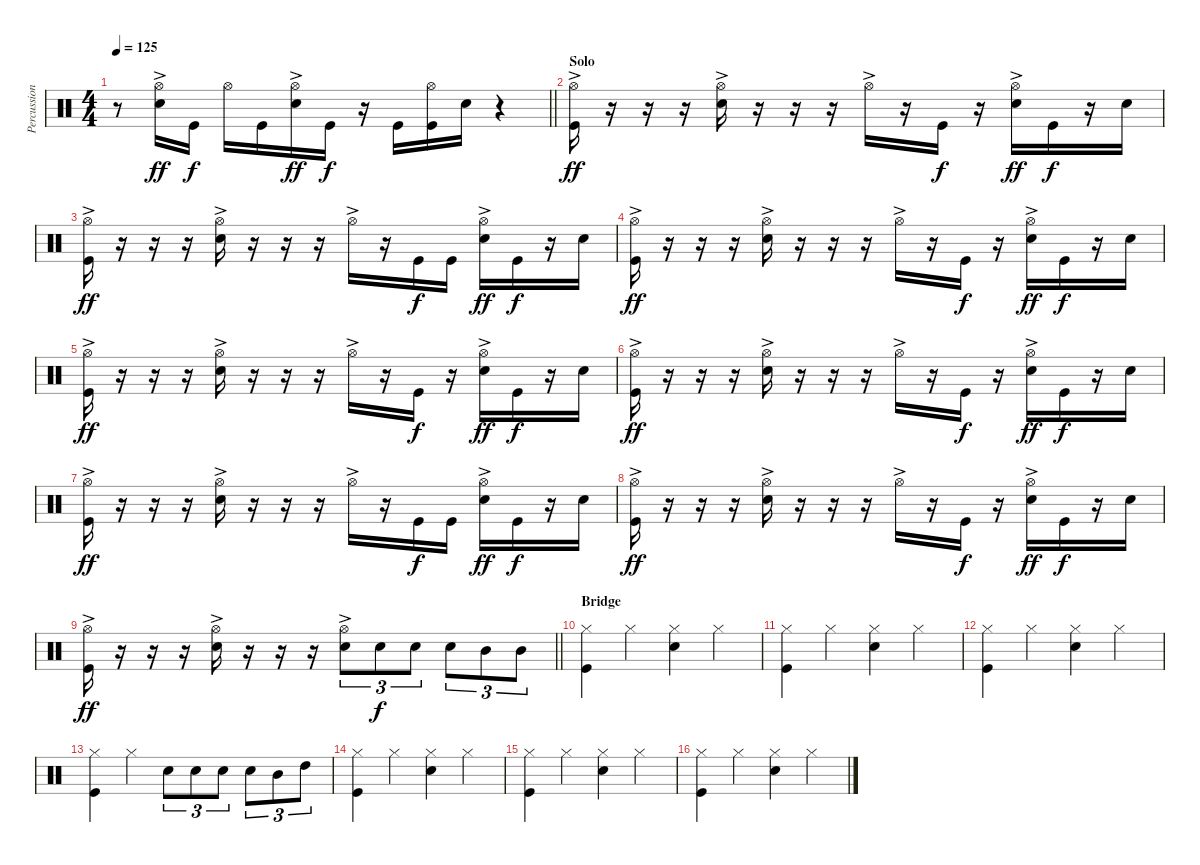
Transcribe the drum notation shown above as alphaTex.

\track ("Percussion" "Percussion") {instrument percussion}
\staff {score}
\articulation defaults
\ts (4 4)
\tempo 125
\clef neutral
\barLineRight lightlight
\ks c
r.8{dy f} ("Hi-Hat (open)"{ac} "Snare (hit) 2").16{dy ff} "Kick (hit)".16{dy f} "Hi-Hat (open)".16 "Kick (hit)".16 ("Hi-Hat (open)"{ac} "Snare (hit) 2").16{dy ff} "Kick (hit)".16{dy f} r.16 "Kick (hit)".16 ("Hi-Hat (open)" "Kick (hit)").16 "Snare (hit) 2".16 r.4 |
\section ("" "Solo")
("Hi-Hat (open)"{ac} "Kick (hit)").16{dy ff} r.16 r.16 r.16 ("Hi-Hat (open)"{ac} "Snare (hit) 2").16 r.16 r.16 r.16 "Hi-Hat (open)"{ac}.16 r.16 "Kick (hit)".16{dy f} r.16 ("Hi-Hat (open)"{ac} "Snare (hit) 2").16{dy ff} "Kick (hit)".16{dy f} r.16 "Snare (hit) 2".16 |
("Hi-Hat (open)"{ac} "Kick (hit)").16{dy ff} r.16 r.16 r.16 ("Hi-Hat (open)"{ac} "Snare (hit) 2").16 r.16 r.16 r.16 "Hi-Hat (open)"{ac}.16 r.16 "Kick (hit)".16{dy f} "Kick (hit)".16 ("Hi-Hat (open)"{ac} "Snare (hit) 2").16{dy ff} "Kick (hit)".16{dy f} r.16 "Snare (hit) 2".16 |
("Hi-Hat (open)"{ac} "Kick (hit)").16{dy ff} r.16 r.16 r.16 ("Hi-Hat (open)"{ac} "Snare (hit) 2").16 r.16 r.16 r.16 "Hi-Hat (open)"{ac}.16 r.16 "Kick (hit)".16{dy f} r.16 ("Hi-Hat (open)"{ac} "Snare (hit) 2").16{dy ff} "Kick (hit)".16{dy f} r.16 "Snare (hit) 2".16 |
("Hi-Hat (open)"{ac} "Kick (hit)").16{dy ff} r.16 r.16 r.16 ("Hi-Hat (open)"{ac} "Snare (hit) 2").16 r.16 r.16 r.16 "Hi-Hat (open)"{ac}.16 r.16 "Kick (hit)".16{dy f} r.16 ("Hi-Hat (open)"{ac} "Snare (hit) 2").16{dy ff} "Kick (hit)".16{dy f} r.16 "Snare (hit) 2".16 |
("Hi-Hat (open)"{ac} "Kick (hit)").16{dy ff} r.16 r.16 r.16 ("Hi-Hat (open)"{ac} "Snare (hit) 2").16 r.16 r.16 r.16 "Hi-Hat (open)"{ac}.16 r.16 "Kick (hit)".16{dy f} r.16 ("Hi-Hat (open)"{ac} "Snare (hit) 2").16{dy ff} "Kick (hit)".16{dy f} r.16 "Snare (hit) 2".16 |
("Hi-Hat (open)"{ac} "Kick (hit)").16{dy ff} r.16 r.16 r.16 ("Hi-Hat (open)"{ac} "Snare (hit) 2").16 r.16 r.16 r.16 "Hi-Hat (open)"{ac}.16 r.16 "Kick (hit)".16{dy f} "Kick (hit)".16 ("Hi-Hat (open)"{ac} "Snare (hit) 2").16{dy ff} "Kick (hit)".16{dy f} r.16 "Snare (hit) 2".16 |
("Hi-Hat (open)"{ac} "Kick (hit)").16{dy ff} r.16 r.16 r.16 ("Hi-Hat (open)"{ac} "Snare (hit) 2").16 r.16 r.16 r.16 "Hi-Hat (open)"{ac}.16 r.16 "Kick (hit)".16{dy f} r.16 ("Hi-Hat (open)"{ac} "Snare (hit) 2").16{dy ff} "Kick (hit)".16{dy f} r.16 "Snare (hit) 2".16 |
\barLineRight lightlight
("Hi-Hat (open)"{ac} "Kick (hit)").16{dy ff} r.16 r.16 r.16 ("Hi-Hat (open)"{ac} "Snare (hit) 2").16 r.16 r.16 r.16 ("Hi-Hat (open)"{ac} "Snare (hit) 2").8{tu (3 2)} "Snare (hit) 2".8{tu (3 2) dy f} "Snare (hit) 2".8{tu (3 2)} "Snare (hit) 2".8{tu (3 2)} "Mid Tom (hit)".8{tu (3 2)} "Mid Tom (hit)".8{tu (3 2)} |
\section ("" "Bridge")
("Hi-Hat (closed)" "Kick (hit)").4 "Hi-Hat (closed)".4 ("Hi-Hat (closed)" "Snare (hit) 2").4 "Hi-Hat (closed)".4 |
("Hi-Hat (closed)" "Kick (hit)").4 "Hi-Hat (closed)".4 ("Hi-Hat (closed)" "Snare (hit) 2").4 "Hi-Hat (closed)".4 |
("Hi-Hat (closed)" "Kick (hit)").4 "Hi-Hat (closed)".4 ("Hi-Hat (closed)" "Snare (hit) 2").4 "Hi-Hat (closed)".4 |
("Hi-Hat (closed)" "Kick (hit)").4 "Hi-Hat (closed)".4 "Snare (hit) 2".8{tu (3 2)} "Snare (hit) 2".8{tu (3 2)} "Snare (hit) 2".8{tu (3 2)} "Snare (hit) 2".8{tu (3 2)} "Mid Tom (hit)".8{tu (3 2)} "High Tom (hit)".8{tu (3 2)} |
("Hi-Hat (closed)" "Kick (hit)").4 "Hi-Hat (closed)".4 ("Hi-Hat (closed)" "Snare (hit) 2").4 "Hi-Hat (closed)".4 |
("Hi-Hat (closed)" "Kick (hit)").4 "Hi-Hat (closed)".4 ("Hi-Hat (closed)" "Snare (hit) 2").4 "Hi-Hat (closed)".4 |
("Hi-Hat (closed)" "Kick (hit)").4 "Hi-Hat (closed)".4 ("Hi-Hat (closed)" "Snare (hit) 2").4 "Hi-Hat (closed)".4
